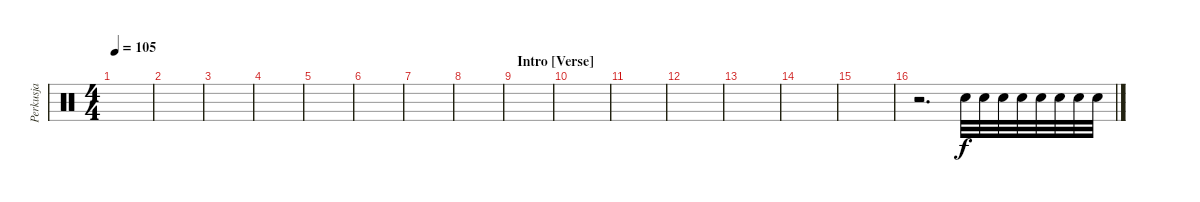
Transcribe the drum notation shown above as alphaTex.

\track ("Perkusja" "Perkusja") {instrument percussion}
\staff {score}
\articulation defaults
\ts (4 4)
\tempo 105
\clef neutral
\ks c
|
|
|
|
|
|
|
|
\section ("" "Intro [Verse]")
|
|
|
|
|
|
|
r.2{d} "Snare (hit) 2".32 "Snare (hit) 2".32 "Snare (hit) 2".32 "Snare (hit) 2".32 "Snare (hit) 2".32 "Snare (hit) 2".32 "Snare (hit) 2".32 "Snare (hit) 2".32
